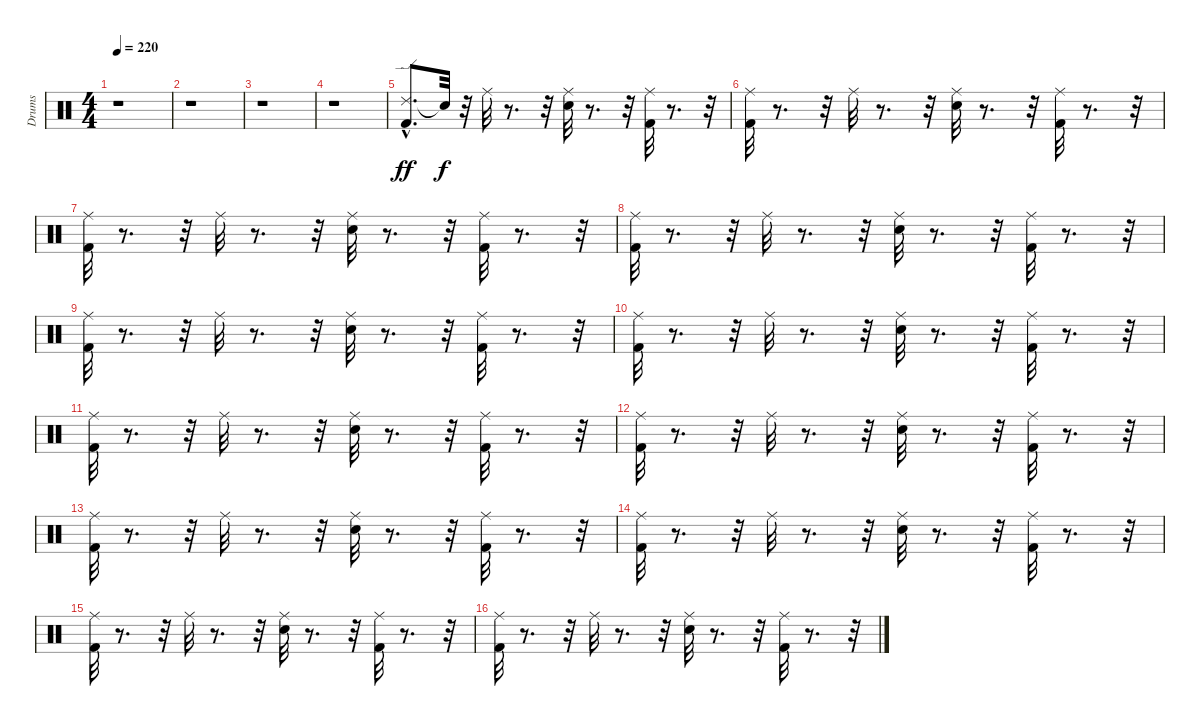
\track ("Drums" "Drums") {instrument percussion}
\staff {score}
\articulation defaults
\ts (4 4)
\tempo 220
\clef neutral
\ks c
r.1{dy ff} |
r.1 |
r.1 |
r.1 |
("Ride (edge) 2"{hac} "Kick (hit) 2").8{d} "Snare (hit)"{t}.32{dy f} r.32 "Ride (middle)".32 r.8{d} r.32 ("Ride (middle)" "Snare (hit) 2").32 r.8{d} r.32 ("Ride (middle)" "Kick (hit) 2").32 r.8{d} r.32 |
("Ride (middle)" "Kick (hit) 2").32 r.8{d} r.32 "Ride (middle)".32 r.8{d} r.32 ("Ride (middle)" "Snare (hit) 2").32 r.8{d} r.32 ("Ride (middle)" "Kick (hit) 2").32 r.8{d} r.32 |
("Ride (middle)" "Kick (hit) 2").32 r.8{d} r.32 "Ride (middle)".32 r.8{d} r.32 ("Ride (middle)" "Snare (hit) 2").32 r.8{d} r.32 ("Ride (middle)" "Kick (hit) 2").32 r.8{d} r.32 |
("Ride (middle)" "Kick (hit) 2").32 r.8{d} r.32 "Ride (middle)".32 r.8{d} r.32 ("Ride (middle)" "Snare (hit) 2").32 r.8{d} r.32 ("Ride (middle)" "Kick (hit) 2").32 r.8{d} r.32 |
("Ride (middle)" "Kick (hit) 2").32 r.8{d} r.32 "Ride (middle)".32 r.8{d} r.32 ("Ride (middle)" "Snare (hit) 2").32 r.8{d} r.32 ("Ride (middle)" "Kick (hit) 2").32 r.8{d} r.32 |
("Ride (middle)" "Kick (hit) 2").32 r.8{d} r.32 "Ride (middle)".32 r.8{d} r.32 ("Ride (middle)" "Snare (hit) 2").32 r.8{d} r.32 ("Ride (middle)" "Kick (hit) 2").32 r.8{d} r.32 |
("Ride (middle)" "Kick (hit) 2").32 r.8{d} r.32 "Ride (middle)".32 r.8{d} r.32 ("Ride (middle)" "Snare (hit) 2").32 r.8{d} r.32 ("Ride (middle)" "Kick (hit) 2").32 r.8{d} r.32 |
("Ride (middle)" "Kick (hit) 2").32 r.8{d} r.32 "Ride (middle)".32 r.8{d} r.32 ("Ride (middle)" "Snare (hit) 2").32 r.8{d} r.32 ("Ride (middle)" "Kick (hit) 2").32 r.8{d} r.32 |
("Ride (middle)" "Kick (hit) 2").32 r.8{d} r.32 "Ride (middle)".32 r.8{d} r.32 ("Ride (middle)" "Snare (hit) 2").32 r.8{d} r.32 ("Ride (middle)" "Kick (hit) 2").32 r.8{d} r.32 |
("Ride (middle)" "Kick (hit) 2").32 r.8{d} r.32 "Ride (middle)".32 r.8{d} r.32 ("Ride (middle)" "Snare (hit) 2").32 r.8{d} r.32 ("Ride (middle)" "Kick (hit) 2").32 r.8{d} r.32 |
("Ride (middle)" "Kick (hit) 2").32 r.8{d} r.32 "Ride (middle)".32 r.8{d} r.32 ("Ride (middle)" "Snare (hit) 2").32 r.8{d} r.32 ("Ride (middle)" "Kick (hit) 2").32 r.8{d} r.32 |
("Ride (middle)" "Kick (hit) 2").32 r.8{d} r.32 "Ride (middle)".32 r.8{d} r.32 ("Ride (middle)" "Snare (hit) 2").32 r.8{d} r.32 ("Ride (middle)" "Kick (hit) 2").32 r.8{d} r.32
